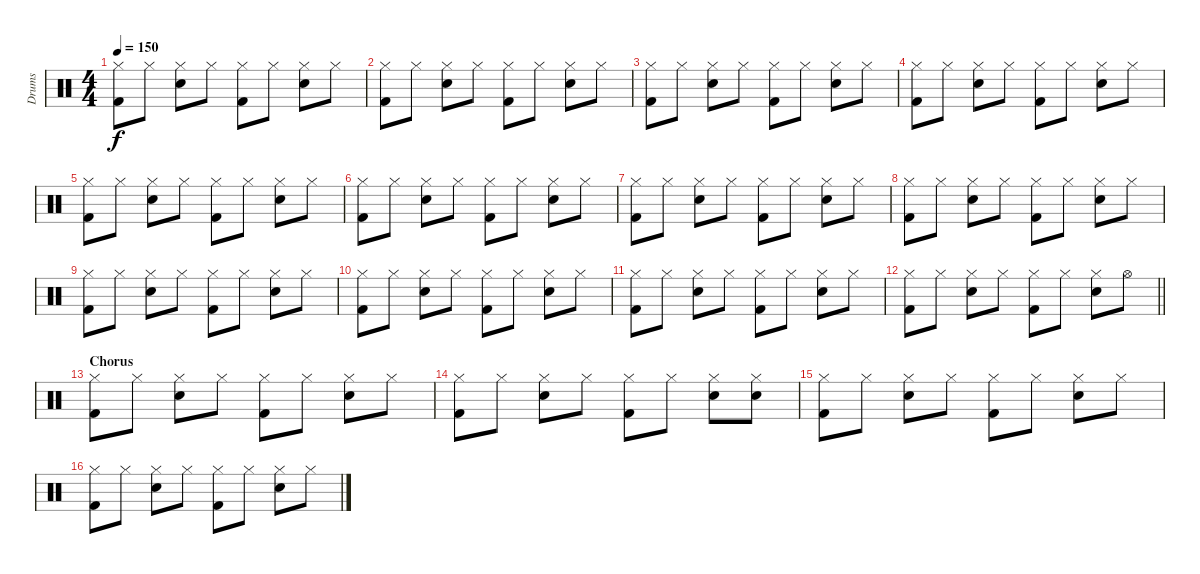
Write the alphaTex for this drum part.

\track ("Drums" "Drums") {instrument percussion}
\staff {score}
\articulation defaults
\ts (4 4)
\tempo 150
\clef neutral
\ks c
("Hi-Hat (closed)" "Kick (hit) 2").8{dy f} "Hi-Hat (closed)".8 ("Hi-Hat (closed)" "Snare (hit) 2").8 "Hi-Hat (closed)".8 ("Hi-Hat (closed)" "Kick (hit) 2").8 "Hi-Hat (closed)".8 ("Hi-Hat (closed)" "Snare (hit) 2").8 "Hi-Hat (closed)".8 |
("Hi-Hat (closed)" "Kick (hit) 2").8 "Hi-Hat (closed)".8 ("Hi-Hat (closed)" "Snare (hit) 2").8 "Hi-Hat (closed)".8 ("Hi-Hat (closed)" "Kick (hit) 2").8 "Hi-Hat (closed)".8 ("Hi-Hat (closed)" "Snare (hit) 2").8 "Hi-Hat (closed)".8 |
("Hi-Hat (closed)" "Kick (hit) 2").8 "Hi-Hat (closed)".8 ("Hi-Hat (closed)" "Snare (hit) 2").8 "Hi-Hat (closed)".8 ("Hi-Hat (closed)" "Kick (hit) 2").8 "Hi-Hat (closed)".8 ("Hi-Hat (closed)" "Snare (hit) 2").8 "Hi-Hat (closed)".8 |
("Hi-Hat (closed)" "Kick (hit) 2").8 "Hi-Hat (closed)".8 ("Hi-Hat (closed)" "Snare (hit) 2").8 "Hi-Hat (closed)".8 ("Hi-Hat (closed)" "Kick (hit) 2").8 "Hi-Hat (closed)".8 ("Hi-Hat (closed)" "Snare (hit) 2").8 "Hi-Hat (closed)".8 |
("Hi-Hat (closed)" "Kick (hit) 2").8 "Hi-Hat (closed)".8 ("Hi-Hat (closed)" "Snare (hit) 2").8 "Hi-Hat (closed)".8 ("Hi-Hat (closed)" "Kick (hit) 2").8 "Hi-Hat (closed)".8 ("Hi-Hat (closed)" "Snare (hit) 2").8 "Hi-Hat (closed)".8 |
("Hi-Hat (closed)" "Kick (hit) 2").8 "Hi-Hat (closed)".8 ("Hi-Hat (closed)" "Snare (hit) 2").8 "Hi-Hat (closed)".8 ("Hi-Hat (closed)" "Kick (hit) 2").8 "Hi-Hat (closed)".8 ("Hi-Hat (closed)" "Snare (hit) 2").8 "Hi-Hat (closed)".8 |
("Hi-Hat (closed)" "Kick (hit) 2").8 "Hi-Hat (closed)".8 ("Hi-Hat (closed)" "Snare (hit) 2").8 "Hi-Hat (closed)".8 ("Hi-Hat (closed)" "Kick (hit) 2").8 "Hi-Hat (closed)".8 ("Hi-Hat (closed)" "Snare (hit) 2").8 "Hi-Hat (closed)".8 |
("Hi-Hat (closed)" "Kick (hit) 2").8 "Hi-Hat (closed)".8 ("Hi-Hat (closed)" "Snare (hit) 2").8 "Hi-Hat (closed)".8 ("Hi-Hat (closed)" "Kick (hit) 2").8 "Hi-Hat (closed)".8 ("Hi-Hat (closed)" "Snare (hit) 2").8 "Hi-Hat (closed)".8 |
("Hi-Hat (closed)" "Kick (hit) 2").8 "Hi-Hat (closed)".8 ("Hi-Hat (closed)" "Snare (hit) 2").8 "Hi-Hat (closed)".8 ("Hi-Hat (closed)" "Kick (hit) 2").8 "Hi-Hat (closed)".8 ("Hi-Hat (closed)" "Snare (hit) 2").8 "Hi-Hat (closed)".8 |
("Hi-Hat (closed)" "Kick (hit) 2").8 "Hi-Hat (closed)".8 ("Hi-Hat (closed)" "Snare (hit) 2").8 "Hi-Hat (closed)".8 ("Hi-Hat (closed)" "Kick (hit) 2").8 "Hi-Hat (closed)".8 ("Hi-Hat (closed)" "Snare (hit) 2").8 "Hi-Hat (closed)".8 |
("Hi-Hat (closed)" "Kick (hit) 2").8 "Hi-Hat (closed)".8 ("Hi-Hat (closed)" "Snare (hit) 2").8 "Hi-Hat (closed)".8 ("Hi-Hat (closed)" "Kick (hit) 2").8 "Hi-Hat (closed)".8 ("Hi-Hat (closed)" "Snare (hit) 2").8 "Hi-Hat (closed)".8 |
\barLineRight lightlight
("Hi-Hat (closed)" "Kick (hit) 2").8 "Hi-Hat (closed)".8 ("Hi-Hat (closed)" "Snare (hit) 2").8 "Hi-Hat (closed)".8 ("Hi-Hat (closed)" "Kick (hit) 2").8 "Hi-Hat (closed)".8 ("Hi-Hat (closed)" "Snare (hit) 2").8 "Hi-Hat (open)".8 |
\section ("" "Chorus")
("Hi-Hat (closed)" "Kick (hit) 2").8 "Hi-Hat (closed)".8 ("Hi-Hat (closed)" "Snare (hit) 2").8 "Hi-Hat (closed)".8 ("Hi-Hat (closed)" "Kick (hit) 2").8 "Hi-Hat (closed)".8 ("Hi-Hat (closed)" "Snare (hit) 2").8 "Hi-Hat (closed)".8 |
("Hi-Hat (closed)" "Kick (hit) 2").8 "Hi-Hat (closed)".8 ("Hi-Hat (closed)" "Snare (hit) 2").8 "Hi-Hat (closed)".8 ("Hi-Hat (closed)" "Kick (hit) 2").8 "Hi-Hat (closed)".8 ("Hi-Hat (closed)" "Snare (hit) 2").8 ("Hi-Hat (closed)" "Snare (hit) 2").8 |
("Hi-Hat (closed)" "Kick (hit) 2").8 "Hi-Hat (closed)".8 ("Hi-Hat (closed)" "Snare (hit) 2").8 "Hi-Hat (closed)".8 ("Hi-Hat (closed)" "Kick (hit) 2").8 "Hi-Hat (closed)".8 ("Hi-Hat (closed)" "Snare (hit) 2").8 "Hi-Hat (closed)".8 |
("Hi-Hat (closed)" "Kick (hit) 2").8 "Hi-Hat (closed)".8 ("Hi-Hat (closed)" "Snare (hit) 2").8 "Hi-Hat (closed)".8 ("Hi-Hat (closed)" "Kick (hit) 2").8 "Hi-Hat (closed)".8 ("Hi-Hat (closed)" "Snare (hit) 2").8 "Hi-Hat (closed)".8
